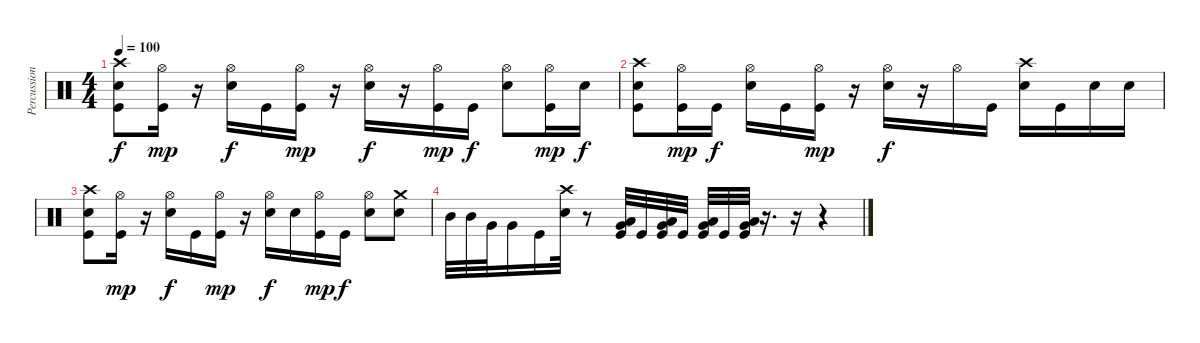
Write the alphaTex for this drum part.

\track ("Percussion" "Percussion") {instrument percussion}
\staff {score}
\articulation defaults
\ts (4 4)
\tempo 100
\clef neutral
\ks c
("Crash high (hit)" "Electric Snare (hit)" "Kick (hit)").8{dy f} ("Hi-Hat (open)" "Kick (hit)").16{dy mp} r.16 ("Hi-Hat (open)" "Electric Snare (hit)").16{dy f} "Kick (hit)".16 ("Hi-Hat (open)" "Kick (hit)").16{dy mp} r.16 ("Hi-Hat (open)" "Electric Snare (hit)").16{dy f} r.16 ("Hi-Hat (open)" "Kick (hit)").16{dy mp} "Kick (hit)".16{dy f} ("Hi-Hat (open)" "Electric Snare (hit)").8 ("Hi-Hat (open)" "Kick (hit)").16{dy mp} "Electric Snare (hit)".16{dy f} |
("Crash high (hit)" "Electric Snare (hit)" "Kick (hit)").8 ("Hi-Hat (open)" "Kick (hit)").16{dy mp} "Kick (hit)".16{dy f} ("Hi-Hat (open)" "Electric Snare (hit)").16 "Kick (hit)".16 ("Hi-Hat (open)" "Kick (hit)").16{dy mp} r.16 ("Hi-Hat (open)" "Electric Snare (hit)").16{dy f} r.16 "Hi-Hat (open)".16 "Kick (hit)".16 ("Crash high (hit)" "Electric Snare (hit)").16 "Kick (hit)".16 "Electric Snare (hit)".16 "Electric Snare (hit)".16 |
("Crash high (hit)" "Electric Snare (hit)" "Kick (hit)").8 ("Hi-Hat (open)" "Kick (hit)").16{dy mp} r.16 ("Hi-Hat (open)" "Electric Snare (hit)").16{dy f} "Kick (hit)".16 ("Hi-Hat (open)" "Kick (hit)").16{dy mp} r.16 ("Hi-Hat (open)" "Electric Snare (hit)").16{dy f} "Electric Snare (hit)".16 ("Hi-Hat (open)" "Kick (hit)").16{dy mp} "Kick (hit)".16{dy f} ("Hi-Hat (open)" "Electric Snare (hit)").8 ("Crash medium (hit)" "Electric Snare (hit)").8 |
"Mid Tom (hit)".32 "Mid Tom (hit)".32 "Very Low Tom (hit)".32 "Very Low Tom (hit)".16 "Kick (hit)".16 ("Crash high (hit)" "Electric Snare (hit)").32 r.8 ("Very Low Tom (hit)" "Low Floor Tom (hit)" "Kick (hit)").32 "Kick (hit)".32 ("Very Low Tom (hit)" "Low Floor Tom (hit)" "Kick (hit)").32 "Kick (hit)".32 ("Very Low Tom (hit)" "Low Floor Tom (hit)" "Kick (hit)").32 "Kick (hit)".32 ("Very Low Tom (hit)" "Low Floor Tom (hit)" "Kick (hit)").32 r.16{d} r.16 r.4
